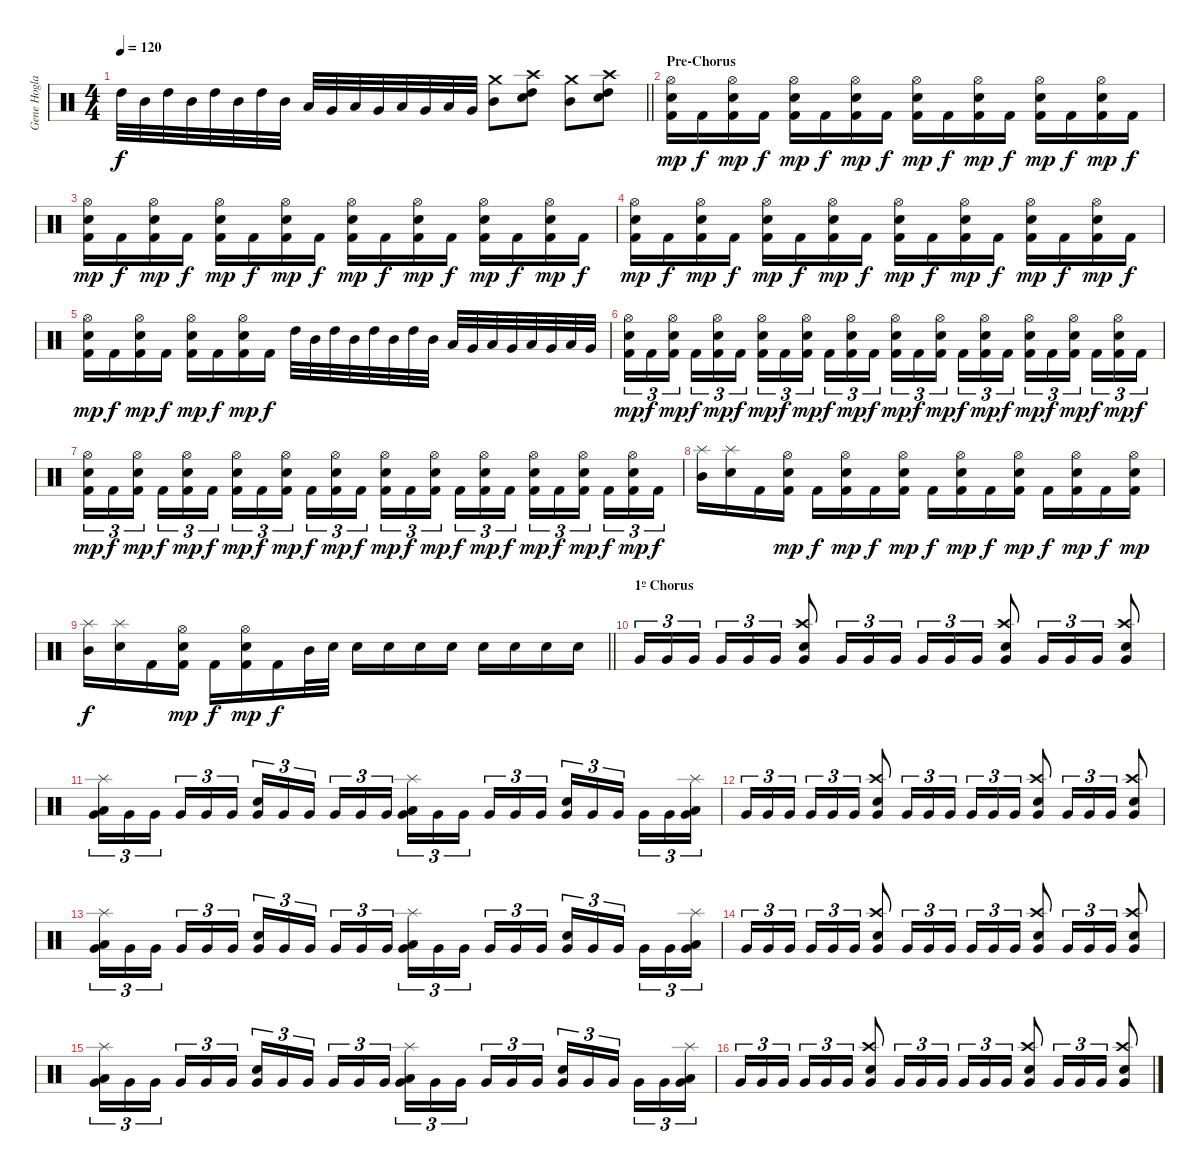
\track ("Gene Hoglan" "Gene Hogla") {instrument percussion}
\staff {score}
\articulation defaults
\ts (4 4)
\tempo 120
\clef neutral
\barLineRight lightlight
\ks c "High Tom (hit)".32{dy f} "Mid Tom (hit)".32 "High Tom (hit)".32 "Mid Tom (hit)".32 "High Tom (hit)".32 "Mid Tom (hit)".32 "High Tom (hit)".32 "Mid Tom (hit)".32 "Low Tom (hit)".32 "Very Low Tom (hit)".32 "Low Tom (hit)".32 "Very Low Tom (hit)".32 "Low Tom (hit)".32 "Very Low Tom (hit)".32 "Low Tom (hit)".32 "Very Low Tom (hit)".32
("Mid Tom (hit)" "Crash medium (hit)").8 ("High Tom (hit)" "Crash high (hit)" "Electric Snare (hit)").8 ("Mid Tom (hit)" "Crash medium (hit)").8 ("High Tom (hit)" "Crash high (hit)" "Electric Snare (hit)").8 |
\section ("" "Pre-Chorus")
("Hi-Hat (open)" "Snare (hit) 2" "Kick (hit) 2").16{dy mp} "Kick (hit) 2".16{dy f} ("Hi-Hat (open)" "Snare (hit) 2" "Kick (hit) 2").16{dy mp} "Kick (hit) 2".16{dy f} ("Hi-Hat (open)" "Snare (hit) 2" "Kick (hit) 2").16{dy mp} "Kick (hit) 2".16{dy f} ("Hi-Hat (open)" "Snare (hit) 2" "Kick (hit) 2").16{dy mp} "Kick (hit) 2".16{dy f} ("Hi-Hat (open)" "Snare (hit) 2" "Kick (hit) 2").16{dy mp} "Kick (hit) 2".16{dy f} ("Hi-Hat (open)" "Snare (hit) 2" "Kick (hit) 2").16{dy mp} "Kick (hit) 2".16{dy f} ("Hi-Hat (open)" "Snare (hit) 2" "Kick (hit) 2").16{dy mp} "Kick (hit) 2".16{dy f} ("Hi-Hat (open)" "Snare (hit) 2" "Kick (hit) 2").16{dy mp} "Kick (hit) 2".16{dy f} |
("Hi-Hat (open)" "Snare (hit) 2" "Kick (hit) 2").16{dy mp} "Kick (hit) 2".16{dy f} ("Hi-Hat (open)" "Snare (hit) 2" "Kick (hit) 2").16{dy mp} "Kick (hit) 2".16{dy f} ("Hi-Hat (open)" "Snare (hit) 2" "Kick (hit) 2").16{dy mp} "Kick (hit) 2".16{dy f} ("Hi-Hat (open)" "Snare (hit) 2" "Kick (hit) 2").16{dy mp} "Kick (hit) 2".16{dy f} ("Hi-Hat (open)" "Snare (hit) 2" "Kick (hit) 2").16{dy mp} "Kick (hit) 2".16{dy f} ("Hi-Hat (open)" "Snare (hit) 2" "Kick (hit) 2").16{dy mp} "Kick (hit) 2".16{dy f} ("Hi-Hat (open)" "Snare (hit) 2" "Kick (hit) 2").16{dy mp} "Kick (hit) 2".16{dy f} ("Hi-Hat (open)" "Snare (hit) 2" "Kick (hit) 2").16{dy mp} "Kick (hit) 2".16{dy f} |
("Hi-Hat (open)" "Snare (hit) 2" "Kick (hit) 2").16{dy mp} "Kick (hit) 2".16{dy f} ("Hi-Hat (open)" "Snare (hit) 2" "Kick (hit) 2").16{dy mp} "Kick (hit) 2".16{dy f} ("Hi-Hat (open)" "Snare (hit) 2" "Kick (hit) 2").16{dy mp} "Kick (hit) 2".16{dy f} ("Hi-Hat (open)" "Snare (hit) 2" "Kick (hit) 2").16{dy mp} "Kick (hit) 2".16{dy f} ("Hi-Hat (open)" "Snare (hit) 2" "Kick (hit) 2").16{dy mp} "Kick (hit) 2".16{dy f} ("Hi-Hat (open)" "Snare (hit) 2" "Kick (hit) 2").16{dy mp} "Kick (hit) 2".16{dy f} ("Hi-Hat (open)" "Snare (hit) 2" "Kick (hit) 2").16{dy mp} "Kick (hit) 2".16{dy f} ("Hi-Hat (open)" "Snare (hit) 2" "Kick (hit) 2").16{dy mp} "Kick (hit) 2".16{dy f} |
("Hi-Hat (open)" "Snare (hit) 2" "Kick (hit) 2").16{dy mp} "Kick (hit) 2".16{dy f} ("Hi-Hat (open)" "Snare (hit) 2" "Kick (hit) 2").16{dy mp} "Kick (hit) 2".16{dy f} ("Hi-Hat (open)" "Snare (hit) 2" "Kick (hit) 2").16{dy mp} "Kick (hit) 2".16{dy f} ("Hi-Hat (open)" "Snare (hit) 2" "Kick (hit) 2").16{dy mp} "Kick (hit) 2".16{dy f} "High Tom (hit)".32 "Mid Tom (hit)".32 "High Tom (hit)".32 "Mid Tom (hit)".32 "High Tom (hit)".32 "Mid Tom (hit)".32 "High Tom (hit)".32 "Mid Tom (hit)".32 "Low Tom (hit)".32 "Very Low Tom (hit)".32 "Low Tom (hit)".32 "Very Low Tom (hit)".32 "Low Tom (hit)".32 "Very Low Tom (hit)".32 "Low Tom (hit)".32 "Very Low Tom (hit)".32 |
("Hi-Hat (open)" "Snare (hit) 2" "Kick (hit) 2").16{tu (3 2) dy mp} "Kick (hit) 2".16{tu (3 2) dy f} ("Hi-Hat (open)" "Snare (hit) 2" "Kick (hit) 2").16{tu (3 2) dy mp beam splitsecondary} "Kick (hit) 2".16{tu (3 2) dy f} ("Hi-Hat (open)" "Snare (hit) 2" "Kick (hit) 2").16{tu (3 2) dy mp} "Kick (hit) 2".16{tu (3 2) dy f} ("Hi-Hat (open)" "Snare (hit) 2" "Kick (hit) 2").16{tu (3 2) dy mp} "Kick (hit) 2".16{tu (3 2) dy f} ("Hi-Hat (open)" "Snare (hit) 2" "Kick (hit) 2").16{tu (3 2) dy mp beam splitsecondary} "Kick (hit) 2".16{tu (3 2) dy f} ("Hi-Hat (open)" "Snare (hit) 2" "Kick (hit) 2").16{tu (3 2) dy mp} "Kick (hit) 2".16{tu (3 2) dy f} ("Hi-Hat (open)" "Snare (hit) 2" "Kick (hit) 2").16{tu (3 2) dy mp} "Kick (hit) 2".16{tu (3 2) dy f} ("Hi-Hat (open)" "Snare (hit) 2" "Kick (hit) 2").16{tu (3 2) dy mp beam splitsecondary} "Kick (hit) 2".16{tu (3 2) dy f} ("Hi-Hat (open)" "Snare (hit) 2" "Kick (hit) 2").16{tu (3 2) dy mp} "Kick (hit) 2".16{tu (3 2) dy f} ("Hi-Hat (open)" "Snare (hit) 2" "Kick (hit) 2").16{tu (3 2) dy mp} "Kick (hit) 2".16{tu (3 2) dy f} ("Hi-Hat (open)" "Snare (hit) 2" "Kick (hit) 2").16{tu (3 2) dy mp beam splitsecondary} "Kick (hit) 2".16{tu (3 2) dy f} ("Hi-Hat (open)" "Snare (hit) 2" "Kick (hit) 2").16{tu (3 2) dy mp} "Kick (hit) 2".16{tu (3 2) dy f} |
("Hi-Hat (open)" "Snare (hit) 2" "Kick (hit) 2").16{tu (3 2) dy mp} "Kick (hit) 2".16{tu (3 2) dy f} ("Hi-Hat (open)" "Snare (hit) 2" "Kick (hit) 2").16{tu (3 2) dy mp beam splitsecondary} "Kick (hit) 2".16{tu (3 2) dy f} ("Hi-Hat (open)" "Snare (hit) 2" "Kick (hit) 2").16{tu (3 2) dy mp} "Kick (hit) 2".16{tu (3 2) dy f} ("Hi-Hat (open)" "Snare (hit) 2" "Kick (hit) 2").16{tu (3 2) dy mp} "Kick (hit) 2".16{tu (3 2) dy f} ("Hi-Hat (open)" "Snare (hit) 2" "Kick (hit) 2").16{tu (3 2) dy mp beam splitsecondary} "Kick (hit) 2".16{tu (3 2) dy f} ("Hi-Hat (open)" "Snare (hit) 2" "Kick (hit) 2").16{tu (3 2) dy mp} "Kick (hit) 2".16{tu (3 2) dy f} ("Hi-Hat (open)" "Snare (hit) 2" "Kick (hit) 2").16{tu (3 2) dy mp} "Kick (hit) 2".16{tu (3 2) dy f} ("Hi-Hat (open)" "Snare (hit) 2" "Kick (hit) 2").16{tu (3 2) dy mp beam splitsecondary} "Kick (hit) 2".16{tu (3 2) dy f} ("Hi-Hat (open)" "Snare (hit) 2" "Kick (hit) 2").16{tu (3 2) dy mp} "Kick (hit) 2".16{tu (3 2) dy f} ("Hi-Hat (open)" "Snare (hit) 2" "Kick (hit) 2").16{tu (3 2) dy mp} "Kick (hit) 2".16{tu (3 2) dy f} ("Hi-Hat (open)" "Snare (hit) 2" "Kick (hit) 2").16{tu (3 2) dy mp beam splitsecondary} "Kick (hit) 2".16{tu (3 2) dy f} ("Hi-Hat (open)" "Snare (hit) 2" "Kick (hit) 2").16{tu (3 2) dy mp} "Kick (hit) 2".16{tu (3 2) dy f} |
("Splash (hit)" "Mid Tom (hit)").16 ("Electric Snare (hit)" "Splash (hit)").16 "Kick (hit) 2".16 ("Hi-Hat (open)" "Snare (hit) 2" "Kick (hit) 2").16{dy mp} "Kick (hit) 2".16{dy f} ("Hi-Hat (open)" "Snare (hit) 2" "Kick (hit) 2").16{dy mp} "Kick (hit) 2".16{dy f} ("Hi-Hat (open)" "Snare (hit) 2" "Kick (hit) 2").16{dy mp} "Kick (hit) 2".16{dy f} ("Hi-Hat (open)" "Snare (hit) 2" "Kick (hit) 2").16{dy mp} "Kick (hit) 2".16{dy f} ("Hi-Hat (open)" "Snare (hit) 2" "Kick (hit) 2").16{dy mp} "Kick (hit) 2".16{dy f} ("Hi-Hat (open)" "Snare (hit) 2" "Kick (hit) 2").16{dy mp} "Kick (hit) 2".16{dy f} ("Hi-Hat (open)" "Snare (hit) 2" "Kick (hit) 2").16{dy mp} |
\barLineRight lightlight
("Splash (hit)" "Mid Tom (hit)").16{dy f} ("Electric Snare (hit)" "Splash (hit)").16 "Kick (hit) 2".16 ("Hi-Hat (open)" "Snare (hit) 2" "Kick (hit) 2").16{dy mp} "Kick (hit) 2".16{dy f} ("Hi-Hat (open)" "Snare (hit) 2" "Kick (hit) 2").16{dy mp} "Kick (hit) 2".16{dy f} "Mid Tom (hit)".32 "Electric Snare (hit)".32 "Electric Snare (hit)".16 "Electric Snare (hit)".16 "Electric Snare (hit)".16 "Electric Snare (hit)".16 "Electric Snare (hit)".16 "Electric Snare (hit)".16 "Electric Snare (hit)".16 "Electric Snare (hit)".16 |
\section ("" "1º Chorus")
"Very Low Tom (hit)".16{tu (3 2)} "Very Low Tom (hit)".16{tu (3 2)} "Very Low Tom (hit)".16{tu (3 2) beam splitsecondary} "Very Low Tom (hit)".16{tu (3 2)} "Very Low Tom (hit)".16{tu (3 2)} "Very Low Tom (hit)".16{tu (3 2)} ("Very Low Tom (hit)" "Electric Snare (hit)" "Crash high (hit)").8 "Very Low Tom (hit)".16{tu (3 2)} "Very Low Tom (hit)".16{tu (3 2)} "Very Low Tom (hit)".16{tu (3 2)} "Very Low Tom (hit)".16{tu (3 2)} "Very Low Tom (hit)".16{tu (3 2)} "Very Low Tom (hit)".16{tu (3 2)} ("Very Low Tom (hit)" "Electric Snare (hit)" "Crash high (hit)").8 "Very Low Tom (hit)".16{tu (3 2)} "Very Low Tom (hit)".16{tu (3 2)} "Very Low Tom (hit)".16{tu (3 2)} ("Very Low Tom (hit)" "Electric Snare (hit)" "Crash high (hit)").8 |
("Low Tom (hit)" "Very Low Tom (hit)" "Splash (hit)").16{tu (3 2)} "Very Low Tom (hit)".16{tu (3 2)} "Very Low Tom (hit)".16{tu (3 2) beam splitsecondary} "Very Low Tom (hit)".16{tu (3 2)} "Very Low Tom (hit)".16{tu (3 2)} "Very Low Tom (hit)".16{tu (3 2)} ("Very Low Tom (hit)" "Electric Snare (hit)").16{tu (3 2)} "Very Low Tom (hit)".16{tu (3 2)} "Very Low Tom (hit)".16{tu (3 2) beam splitsecondary} "Very Low Tom (hit)".16{tu (3 2)} "Very Low Tom (hit)".16{tu (3 2)} "Very Low Tom (hit)".16{tu (3 2)} ("Low Tom (hit)" "Very Low Tom (hit)" "Splash (hit)").16{tu (3 2)} "Very Low Tom (hit)".16{tu (3 2)} "Very Low Tom (hit)".16{tu (3 2) beam splitsecondary} "Very Low Tom (hit)".16{tu (3 2)} "Very Low Tom (hit)".16{tu (3 2)} "Very Low Tom (hit)".16{tu (3 2)} ("Very Low Tom (hit)" "Electric Snare (hit)").16{tu (3 2)} "Very Low Tom (hit)".16{tu (3 2)} "Very Low Tom (hit)".16{tu (3 2) beam splitsecondary} "Very Low Tom (hit)".16{tu (3 2)} "Very Low Tom (hit)".16{tu (3 2)} ("Low Tom (hit)" "Very Low Tom (hit)" "Splash (hit)").16{tu (3 2)} |
"Very Low Tom (hit)".16{tu (3 2)} "Very Low Tom (hit)".16{tu (3 2)} "Very Low Tom (hit)".16{tu (3 2) beam splitsecondary} "Very Low Tom (hit)".16{tu (3 2)} "Very Low Tom (hit)".16{tu (3 2)} "Very Low Tom (hit)".16{tu (3 2)} ("Very Low Tom (hit)" "Electric Snare (hit)" "Crash high (hit)").8 "Very Low Tom (hit)".16{tu (3 2)} "Very Low Tom (hit)".16{tu (3 2)} "Very Low Tom (hit)".16{tu (3 2)} "Very Low Tom (hit)".16{tu (3 2)} "Very Low Tom (hit)".16{tu (3 2)} "Very Low Tom (hit)".16{tu (3 2)} ("Very Low Tom (hit)" "Electric Snare (hit)" "Crash high (hit)").8 "Very Low Tom (hit)".16{tu (3 2)} "Very Low Tom (hit)".16{tu (3 2)} "Very Low Tom (hit)".16{tu (3 2)} ("Very Low Tom (hit)" "Electric Snare (hit)" "Crash high (hit)").8 |
("Low Tom (hit)" "Very Low Tom (hit)" "Splash (hit)").16{tu (3 2)} "Very Low Tom (hit)".16{tu (3 2)} "Very Low Tom (hit)".16{tu (3 2) beam splitsecondary} "Very Low Tom (hit)".16{tu (3 2)} "Very Low Tom (hit)".16{tu (3 2)} "Very Low Tom (hit)".16{tu (3 2)} ("Very Low Tom (hit)" "Electric Snare (hit)").16{tu (3 2)} "Very Low Tom (hit)".16{tu (3 2)} "Very Low Tom (hit)".16{tu (3 2) beam splitsecondary} "Very Low Tom (hit)".16{tu (3 2)} "Very Low Tom (hit)".16{tu (3 2)} "Very Low Tom (hit)".16{tu (3 2)} ("Low Tom (hit)" "Very Low Tom (hit)" "Splash (hit)").16{tu (3 2)} "Very Low Tom (hit)".16{tu (3 2)} "Very Low Tom (hit)".16{tu (3 2) beam splitsecondary} "Very Low Tom (hit)".16{tu (3 2)} "Very Low Tom (hit)".16{tu (3 2)} "Very Low Tom (hit)".16{tu (3 2)} ("Very Low Tom (hit)" "Electric Snare (hit)").16{tu (3 2)} "Very Low Tom (hit)".16{tu (3 2)} "Very Low Tom (hit)".16{tu (3 2) beam splitsecondary} "Very Low Tom (hit)".16{tu (3 2)} "Very Low Tom (hit)".16{tu (3 2)} ("Low Tom (hit)" "Very Low Tom (hit)" "Splash (hit)").16{tu (3 2)} |
"Very Low Tom (hit)".16{tu (3 2)} "Very Low Tom (hit)".16{tu (3 2)} "Very Low Tom (hit)".16{tu (3 2) beam splitsecondary} "Very Low Tom (hit)".16{tu (3 2)} "Very Low Tom (hit)".16{tu (3 2)} "Very Low Tom (hit)".16{tu (3 2)} ("Very Low Tom (hit)" "Electric Snare (hit)" "Crash high (hit)").8 "Very Low Tom (hit)".16{tu (3 2)} "Very Low Tom (hit)".16{tu (3 2)} "Very Low Tom (hit)".16{tu (3 2)} "Very Low Tom (hit)".16{tu (3 2)} "Very Low Tom (hit)".16{tu (3 2)} "Very Low Tom (hit)".16{tu (3 2)} ("Very Low Tom (hit)" "Electric Snare (hit)" "Crash high (hit)").8 "Very Low Tom (hit)".16{tu (3 2)} "Very Low Tom (hit)".16{tu (3 2)} "Very Low Tom (hit)".16{tu (3 2)} ("Very Low Tom (hit)" "Electric Snare (hit)" "Crash high (hit)").8 |
("Low Tom (hit)" "Very Low Tom (hit)" "Splash (hit)").16{tu (3 2)} "Very Low Tom (hit)".16{tu (3 2)} "Very Low Tom (hit)".16{tu (3 2) beam splitsecondary} "Very Low Tom (hit)".16{tu (3 2)} "Very Low Tom (hit)".16{tu (3 2)} "Very Low Tom (hit)".16{tu (3 2)} ("Very Low Tom (hit)" "Electric Snare (hit)").16{tu (3 2)} "Very Low Tom (hit)".16{tu (3 2)} "Very Low Tom (hit)".16{tu (3 2) beam splitsecondary} "Very Low Tom (hit)".16{tu (3 2)} "Very Low Tom (hit)".16{tu (3 2)} "Very Low Tom (hit)".16{tu (3 2)} ("Low Tom (hit)" "Very Low Tom (hit)" "Splash (hit)").16{tu (3 2)} "Very Low Tom (hit)".16{tu (3 2)} "Very Low Tom (hit)".16{tu (3 2) beam splitsecondary} "Very Low Tom (hit)".16{tu (3 2)} "Very Low Tom (hit)".16{tu (3 2)} "Very Low Tom (hit)".16{tu (3 2)} ("Very Low Tom (hit)" "Electric Snare (hit)").16{tu (3 2)} "Very Low Tom (hit)".16{tu (3 2)} "Very Low Tom (hit)".16{tu (3 2) beam splitsecondary} "Very Low Tom (hit)".16{tu (3 2)} "Very Low Tom (hit)".16{tu (3 2)} ("Low Tom (hit)" "Very Low Tom (hit)" "Splash (hit)").16{tu (3 2)} |
"Very Low Tom (hit)".16{tu (3 2)} "Very Low Tom (hit)".16{tu (3 2)} "Very Low Tom (hit)".16{tu (3 2) beam splitsecondary} "Very Low Tom (hit)".16{tu (3 2)} "Very Low Tom (hit)".16{tu (3 2)} "Very Low Tom (hit)".16{tu (3 2)} ("Very Low Tom (hit)" "Electric Snare (hit)" "Crash high (hit)").8 "Very Low Tom (hit)".16{tu (3 2)} "Very Low Tom (hit)".16{tu (3 2)} "Very Low Tom (hit)".16{tu (3 2)} "Very Low Tom (hit)".16{tu (3 2)} "Very Low Tom (hit)".16{tu (3 2)} "Very Low Tom (hit)".16{tu (3 2)} ("Very Low Tom (hit)" "Electric Snare (hit)" "Crash high (hit)").8 "Very Low Tom (hit)".16{tu (3 2)} "Very Low Tom (hit)".16{tu (3 2)} "Very Low Tom (hit)".16{tu (3 2)} ("Very Low Tom (hit)" "Electric Snare (hit)" "Crash high (hit)").8
